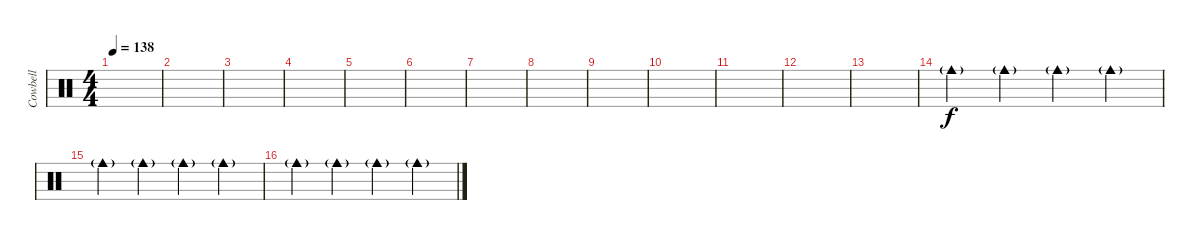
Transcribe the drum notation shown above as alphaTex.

\track ("Cowbell" "Cowbell") {instrument percussion}
\staff {score}
\articulation defaults
\ts (4 4)
\tempo 138
\clef neutral
\ks c
|
|
|
|
|
|
|
|
|
|
|
|
|
"Cowbell medium (hit)"{g}.4 "Cowbell medium (hit)"{g}.4 "Cowbell medium (hit)"{g}.4 "Cowbell medium (hit)"{g}.4 |
"Cowbell medium (hit)"{g}.4 "Cowbell medium (hit)"{g}.4 "Cowbell medium (hit)"{g}.4 "Cowbell medium (hit)"{g}.4 |
"Cowbell medium (hit)"{g}.4 "Cowbell medium (hit)"{g}.4 "Cowbell medium (hit)"{g}.4 "Cowbell medium (hit)"{g}.4
